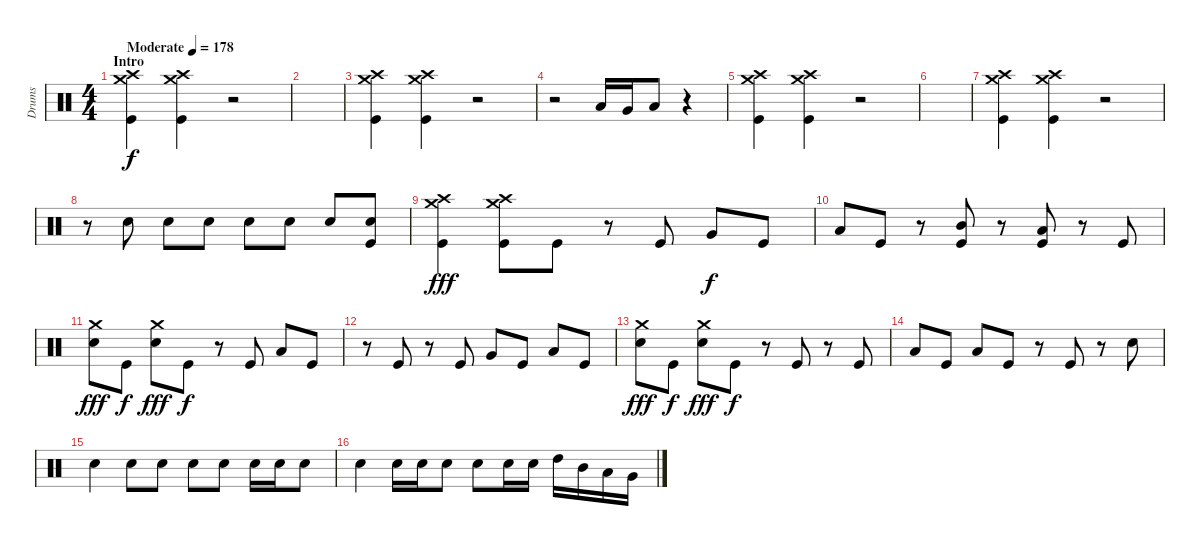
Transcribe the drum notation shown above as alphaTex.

\track ("Drums" "Drums") {instrument percussion}
\staff {score}
\articulation defaults
\ts (4 4)
\section ("" "Intro")
\tempo (178 "Moderate")
\clef neutral
\ks c
("Crash medium (hit)" "Crash high (hit)" "Kick (hit)").4{dy f} ("Crash medium (hit)" "Crash high (hit)" "Kick (hit)").4 r.2 |
|
("Crash medium (hit)" "Crash high (hit)" "Kick (hit)").4 ("Crash medium (hit)" "Crash high (hit)" "Kick (hit)").4 r.2 |
r.2 "Low Tom (hit)".16 "Very Low Tom (hit)".16 "Low Floor Tom (hit)".8 r.4 |
("Crash medium (hit)" "Crash high (hit)" "Kick (hit)").4 ("Crash medium (hit)" "Crash high (hit)" "Kick (hit)").4 r.2 |
|
("Crash medium (hit)" "Crash high (hit)" "Kick (hit)").4 ("Crash medium (hit)" "Crash high (hit)" "Kick (hit)").4 r.2 |
r.8 "Electric Snare (hit)".8 "Electric Snare (hit)".8 "Electric Snare (hit)".8 "Electric Snare (hit)".8 "Electric Snare (hit)".8 "Electric Snare (hit)".8 ("Electric Snare (hit)" "Kick (hit)").8 |
("Crash medium (hit)" "Crash high (hit)" "Kick (hit)").4{dy fff} ("Crash medium (hit)" "Crash high (hit)" "Kick (hit)").8 "Kick (hit)".8 r.8 "Kick (hit)".8 "Very Low Tom (hit)".8{dy f} "Kick (hit)".8 |
"Low Tom (hit)".8 "Kick (hit)".8 r.8 ("Mid Tom (hit)" "Kick (hit)").8 r.8 ("Low Tom (hit)" "Kick (hit)").8 r.8 "Kick (hit)".8 |
("Crash medium (hit)" "Electric Snare (hit)").8{dy fff} "Kick (hit)".8{dy f} ("Crash medium (hit)" "Electric Snare (hit)").8{dy fff} "Kick (hit)".8{dy f} r.8 "Kick (hit)".8 "Low Tom (hit)".8 "Kick (hit)".8 |
r.8 "Kick (hit)".8 r.8 "Kick (hit)".8 "Very Low Tom (hit)".8 "Kick (hit)".8 "Low Floor Tom (hit)".8 "Kick (hit)".8 |
("Crash medium (hit)" "Electric Snare (hit)").8{dy fff} "Kick (hit)".8{dy f} ("Crash medium (hit)" "Electric Snare (hit)").8{dy fff} "Kick (hit)".8{dy f} r.8 "Kick (hit)".8 r.8 "Kick (hit)".8 |
"Low Floor Tom (hit)".8 "Kick (hit)".8 "Low Tom (hit)".8 "Kick (hit)".8 r.8 "Kick (hit)".8 r.8 "Electric Snare (hit)".8 |
"Electric Snare (hit)".4 "Electric Snare (hit)".8 "Electric Snare (hit)".8 "Electric Snare (hit)".8 "Electric Snare (hit)".8 "Electric Snare (hit)".16 "Electric Snare (hit)".16 "Electric Snare (hit)".8 |
"Electric Snare (hit)".4 "Electric Snare (hit)".16 "Electric Snare (hit)".16 "Electric Snare (hit)".8 "Electric Snare (hit)".8 "Electric Snare (hit)".16 "Electric Snare (hit)".16 "High Tom (hit)".16 "Mid Tom (hit)".16 "Low Tom (hit)".16 "Very Low Tom (hit)".16
